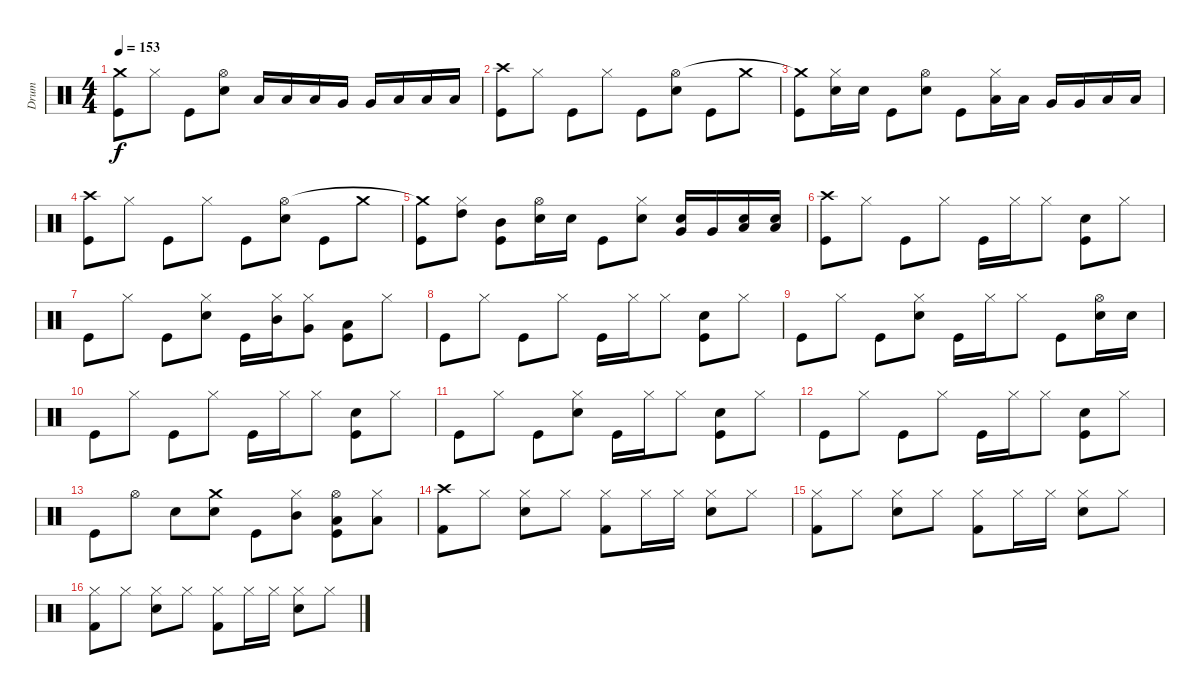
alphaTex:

\track ("Drum" "Drum") {instrument percussion}
\staff {score}
\articulation defaults
\ts (4 4)
\tempo 153
\clef neutral
\ks c
("Kick (hit)" "Crash medium (hit)"{t}).8{dy f} "Hi-Hat (closed)".8 "Kick (hit)".8 ("Snare (hit) 2" "Hi-Hat (open)").8 "Low Tom (hit)".16 "Low Tom (hit)".16 "Low Tom (hit)".16 "Very Low Tom (hit)".16 "Very Low Tom (hit)".16 "Low Floor Tom (hit)".16 "Low Floor Tom (hit)".16 "Low Floor Tom (hit)".16 |
("Kick (hit)" "Crash high (hit)").8 "Hi-Hat (closed)".8 "Kick (hit)".8 "Hi-Hat (closed)".8 "Kick (hit)".8 ("Snare (hit) 2" "Hi-Hat (open)").8 "Kick (hit)".8 "Crash medium (hit)".8 |
("Kick (hit)" "Crash medium (hit)"{t}).8 ("Hi-Hat (closed)" "Snare (hit) 2").16 "Snare (hit) 2".16 "Kick (hit)".8 ("Snare (hit) 2" "Hi-Hat (open)").8 "Kick (hit)".8 ("Hi-Hat (closed)" "Low Tom (hit)").16 "Low Tom (hit)".16 "Very Low Tom (hit)".16 "Very Low Tom (hit)".16 "Low Floor Tom (hit)".16 "Low Floor Tom (hit)".16 |
("Kick (hit)" "Crash high (hit)").8 "Hi-Hat (closed)".8 "Kick (hit)".8 "Hi-Hat (closed)".8 "Kick (hit)".8 ("Snare (hit) 2" "Hi-Hat (open)").8 "Kick (hit)".8 "Crash medium (hit)".8 |
("Kick (hit)" "Crash medium (hit)"{t}).8 ("Hi-Hat (closed)" "High Tom (hit)").8 ("Kick (hit)" "Mid Tom (hit)").8 ("Snare (hit) 2" "Hi-Hat (open)").16 "Snare (hit) 2".16 "Kick (hit)".8 ("Hi-Hat (closed)" "Electric Snare (hit)").8 ("Electric Snare (hit)" "Very Low Tom (hit)").16 "Very Low Tom (hit)".16 ("Electric Snare (hit)" "Low Floor Tom (hit)").16 ("Electric Snare (hit)" "Low Floor Tom (hit)").16 |
("Kick (hit)" "Crash high (hit)").8 "Hi-Hat (closed)".8 "Kick (hit)".8 "Hi-Hat (closed)".8 "Kick (hit)".16 "Hi-Hat (closed)".16 "Hi-Hat (closed)".8 ("Kick (hit)" "Electric Snare (hit)").8 "Hi-Hat (closed)".8 |
"Kick (hit)".8 "Hi-Hat (closed)".8 "Kick (hit)".8 ("Hi-Hat (closed)" "Electric Snare (hit)").8 "Kick (hit)".16 ("Hi-Hat (closed)" "Mid Tom (hit)").16 ("Hi-Hat (closed)" "Very Low Tom (hit)").8 ("Kick (hit)" "Low Floor Tom (hit)").8 "Hi-Hat (closed)".8 |
"Kick (hit)".8 "Hi-Hat (closed)".8 "Kick (hit)".8 "Hi-Hat (closed)".8 "Kick (hit)".16 "Hi-Hat (closed)".16 "Hi-Hat (closed)".8 ("Kick (hit)" "Electric Snare (hit)").8 "Hi-Hat (closed)".8 |
"Kick (hit)".8 "Hi-Hat (closed)".8 "Kick (hit)".8 ("Hi-Hat (closed)" "Electric Snare (hit)").8 "Kick (hit)".16 "Hi-Hat (closed)".16 "Hi-Hat (closed)".8 "Kick (hit)".8 ("Electric Snare (hit)" "Hi-Hat (open)").16 "Electric Snare (hit)".16 |
"Kick (hit)".8 "Hi-Hat (closed)".8 "Kick (hit)".8 "Hi-Hat (closed)".8 "Kick (hit)".16 "Hi-Hat (closed)".16 "Hi-Hat (closed)".8 ("Kick (hit)" "Electric Snare (hit)").8 "Hi-Hat (closed)".8 |
"Kick (hit)".8 "Hi-Hat (closed)".8 "Kick (hit)".8 ("Hi-Hat (closed)" "Electric Snare (hit)").8 "Kick (hit)".16 "Hi-Hat (closed)".16 "Hi-Hat (closed)".8 ("Kick (hit)" "Electric Snare (hit)").8 "Hi-Hat (closed)".8 |
"Kick (hit)".8 "Hi-Hat (closed)".8 "Kick (hit)".8 "Hi-Hat (closed)".8 "Kick (hit)".16 "Hi-Hat (closed)".16 "Hi-Hat (closed)".8 ("Kick (hit)" "Electric Snare (hit)").8 "Hi-Hat (closed)".8 |
"Kick (hit)".8 "Hi-Hat (open)".8 "Electric Snare (hit)".8 ("Electric Snare (hit)" "Crash medium (hit)").8 "Kick (hit)".8 ("Hi-Hat (closed)" "Mid Tom (hit)").8 ("Kick (hit)" "Hi-Hat (open)" "Low Tom (hit)").8 ("Hi-Hat (closed)" "Low Floor Tom (hit)").8 |
("Kick (hit) 2" "Crash high (hit)").8 "Hi-Hat (closed)".8 ("Hi-Hat (closed)" "Electric Snare (hit)").8 "Hi-Hat (closed)".8 ("Hi-Hat (closed)" "Kick (hit) 2").8 "Hi-Hat (closed)".16 "Hi-Hat (closed)".16 ("Hi-Hat (closed)" "Electric Snare (hit)").8 "Hi-Hat (closed)".8 |
("Hi-Hat (closed)" "Kick (hit) 2").8 "Hi-Hat (closed)".8 ("Hi-Hat (closed)" "Electric Snare (hit)").8 "Hi-Hat (closed)".8 ("Hi-Hat (closed)" "Kick (hit) 2").8 "Hi-Hat (closed)".16 "Hi-Hat (closed)".16 ("Hi-Hat (closed)" "Electric Snare (hit)").8 "Hi-Hat (closed)".8 |
("Hi-Hat (closed)" "Kick (hit) 2").8 "Hi-Hat (closed)".8 ("Hi-Hat (closed)" "Electric Snare (hit)").8 "Hi-Hat (closed)".8 ("Hi-Hat (closed)" "Kick (hit) 2").8 "Hi-Hat (closed)".16 "Hi-Hat (closed)".16 ("Hi-Hat (closed)" "Electric Snare (hit)").8 "Hi-Hat (closed)".8
